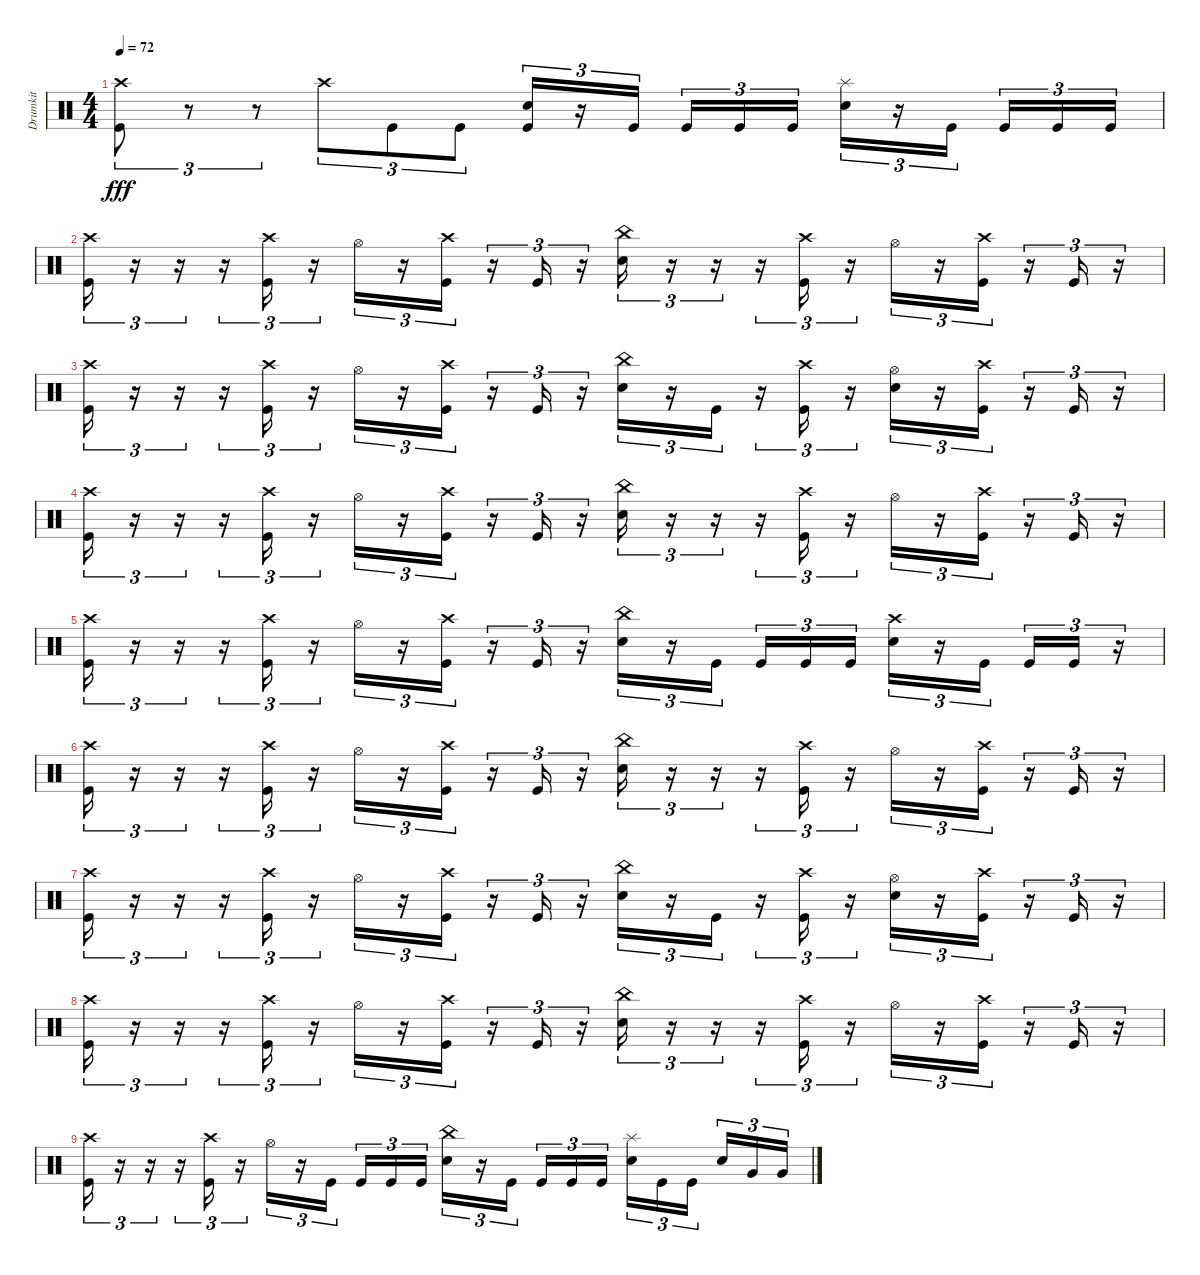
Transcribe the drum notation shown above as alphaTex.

\track ("Drumkit" "Drumkit") {instrument percussion}
\staff {score}
\articulation defaults
\ts (4 4)
\tempo 72
\clef neutral
\ks c
("Kick (hit)" "Crash high (hit)").8{tu (3 2) dy fff} r.8{tu (3 2)} r.8{tu (3 2)} "Crash high (hit)".8{tu (3 2)} "Kick (hit)".8{tu (3 2)} "Kick (hit)".8{tu (3 2)} ("Kick (hit)" "Snare (hit) 2").16{tu (3 2)} r.16{tu (3 2)} "Kick (hit)".16{tu (3 2) beam splitsecondary} "Kick (hit)".16{tu (3 2)} "Kick (hit)".16{tu (3 2)} "Kick (hit)".16{tu (3 2)} ("Snare (hit) 2" "Splash (hit)").16{tu (3 2)} r.16{tu (3 2)} "Kick (hit)".16{tu (3 2) beam splitsecondary} "Kick (hit)".16{tu (3 2)} "Kick (hit)".16{tu (3 2)} "Kick (hit)".16{tu (3 2)} |
("Kick (hit)" "Crash high (hit)").16{tu (3 2)} r.16{tu (3 2)} r.16{tu (3 2)} r.16{tu (3 2)} ("Kick (hit)" "Crash high (hit)").16{tu (3 2)} r.16{tu (3 2)} "Hi-Hat (open)".16{tu (3 2)} r.16{tu (3 2)} ("Kick (hit)" "Crash high (hit)").16{tu (3 2)} r.16{tu (3 2)} "Kick (hit)".16{tu (3 2)} r.16{tu (3 2)} ("Snare (hit) 2" "China (hit)").16{tu (3 2)} r.16{tu (3 2)} r.16{tu (3 2)} r.16{tu (3 2)} ("Kick (hit)" "Crash high (hit)").16{tu (3 2)} r.16{tu (3 2)} "Hi-Hat (open)".16{tu (3 2)} r.16{tu (3 2)} ("Kick (hit)" "Crash high (hit)").16{tu (3 2)} r.16{tu (3 2)} "Kick (hit)".16{tu (3 2)} r.16{tu (3 2)} |
("Kick (hit)" "Crash high (hit)").16{tu (3 2)} r.16{tu (3 2)} r.16{tu (3 2)} r.16{tu (3 2)} ("Kick (hit)" "Crash high (hit)").16{tu (3 2)} r.16{tu (3 2)} "Hi-Hat (open)".16{tu (3 2)} r.16{tu (3 2)} ("Kick (hit)" "Crash high (hit)").16{tu (3 2)} r.16{tu (3 2)} "Kick (hit)".16{tu (3 2)} r.16{tu (3 2)} ("Snare (hit) 2" "China (hit)").16{tu (3 2)} r.16{tu (3 2)} "Kick (hit)".16{tu (3 2)} r.16{tu (3 2)} ("Kick (hit)" "Crash high (hit)").16{tu (3 2)} r.16{tu (3 2)} ("Hi-Hat (open)" "Snare (hit) 2").16{tu (3 2)} r.16{tu (3 2)} ("Kick (hit)" "Crash high (hit)").16{tu (3 2)} r.16{tu (3 2)} "Kick (hit)".16{tu (3 2)} r.16{tu (3 2)} |
("Kick (hit)" "Crash high (hit)").16{tu (3 2)} r.16{tu (3 2)} r.16{tu (3 2)} r.16{tu (3 2)} ("Kick (hit)" "Crash high (hit)").16{tu (3 2)} r.16{tu (3 2)} "Hi-Hat (open)".16{tu (3 2)} r.16{tu (3 2)} ("Kick (hit)" "Crash high (hit)").16{tu (3 2)} r.16{tu (3 2)} "Kick (hit)".16{tu (3 2)} r.16{tu (3 2)} ("Snare (hit) 2" "China (hit)").16{tu (3 2)} r.16{tu (3 2)} r.16{tu (3 2)} r.16{tu (3 2)} ("Kick (hit)" "Crash high (hit)").16{tu (3 2)} r.16{tu (3 2)} "Hi-Hat (open)".16{tu (3 2)} r.16{tu (3 2)} ("Kick (hit)" "Crash high (hit)").16{tu (3 2)} r.16{tu (3 2)} "Kick (hit)".16{tu (3 2)} r.16{tu (3 2)} |
("Kick (hit)" "Crash high (hit)").16{tu (3 2)} r.16{tu (3 2)} r.16{tu (3 2)} r.16{tu (3 2)} ("Kick (hit)" "Crash high (hit)").16{tu (3 2)} r.16{tu (3 2)} "Hi-Hat (open)".16{tu (3 2)} r.16{tu (3 2)} ("Kick (hit)" "Crash high (hit)").16{tu (3 2)} r.16{tu (3 2)} "Kick (hit)".16{tu (3 2)} r.16{tu (3 2)} ("Snare (hit) 2" "China (hit)").16{tu (3 2)} r.16{tu (3 2)} "Kick (hit)".16{tu (3 2) beam splitsecondary} "Kick (hit)".16{tu (3 2)} "Kick (hit)".16{tu (3 2)} "Kick (hit)".16{tu (3 2)} ("Crash high (hit)" "Snare (hit) 2").16{tu (3 2)} r.16{tu (3 2)} "Kick (hit)".16{tu (3 2) beam splitsecondary} "Kick (hit)".16{tu (3 2)} "Kick (hit)".16{tu (3 2)} r.16{tu (3 2)} |
("Kick (hit)" "Crash high (hit)").16{tu (3 2)} r.16{tu (3 2)} r.16{tu (3 2)} r.16{tu (3 2)} ("Kick (hit)" "Crash high (hit)").16{tu (3 2)} r.16{tu (3 2)} "Hi-Hat (open)".16{tu (3 2)} r.16{tu (3 2)} ("Kick (hit)" "Crash high (hit)").16{tu (3 2)} r.16{tu (3 2)} "Kick (hit)".16{tu (3 2)} r.16{tu (3 2)} ("Snare (hit) 2" "China (hit)").16{tu (3 2)} r.16{tu (3 2)} r.16{tu (3 2)} r.16{tu (3 2)} ("Kick (hit)" "Crash high (hit)").16{tu (3 2)} r.16{tu (3 2)} "Hi-Hat (open)".16{tu (3 2)} r.16{tu (3 2)} ("Kick (hit)" "Crash high (hit)").16{tu (3 2)} r.16{tu (3 2)} "Kick (hit)".16{tu (3 2)} r.16{tu (3 2)} |
("Kick (hit)" "Crash high (hit)").16{tu (3 2)} r.16{tu (3 2)} r.16{tu (3 2)} r.16{tu (3 2)} ("Kick (hit)" "Crash high (hit)").16{tu (3 2)} r.16{tu (3 2)} "Hi-Hat (open)".16{tu (3 2)} r.16{tu (3 2)} ("Kick (hit)" "Crash high (hit)").16{tu (3 2)} r.16{tu (3 2)} "Kick (hit)".16{tu (3 2)} r.16{tu (3 2)} ("Snare (hit) 2" "China (hit)").16{tu (3 2)} r.16{tu (3 2)} "Kick (hit)".16{tu (3 2)} r.16{tu (3 2)} ("Kick (hit)" "Crash high (hit)").16{tu (3 2)} r.16{tu (3 2)} ("Hi-Hat (open)" "Snare (hit) 2").16{tu (3 2)} r.16{tu (3 2)} ("Kick (hit)" "Crash high (hit)").16{tu (3 2)} r.16{tu (3 2)} "Kick (hit)".16{tu (3 2)} r.16{tu (3 2)} |
("Kick (hit)" "Crash high (hit)").16{tu (3 2)} r.16{tu (3 2)} r.16{tu (3 2)} r.16{tu (3 2)} ("Kick (hit)" "Crash high (hit)").16{tu (3 2)} r.16{tu (3 2)} "Hi-Hat (open)".16{tu (3 2)} r.16{tu (3 2)} ("Kick (hit)" "Crash high (hit)").16{tu (3 2)} r.16{tu (3 2)} "Kick (hit)".16{tu (3 2)} r.16{tu (3 2)} ("Snare (hit) 2" "China (hit)").16{tu (3 2)} r.16{tu (3 2)} r.16{tu (3 2)} r.16{tu (3 2)} ("Kick (hit)" "Crash high (hit)").16{tu (3 2)} r.16{tu (3 2)} "Hi-Hat (open)".16{tu (3 2)} r.16{tu (3 2)} ("Kick (hit)" "Crash high (hit)").16{tu (3 2)} r.16{tu (3 2)} "Kick (hit)".16{tu (3 2)} r.16{tu (3 2)} |
("Kick (hit)" "Crash high (hit)").16{tu (3 2)} r.16{tu (3 2)} r.16{tu (3 2)} r.16{tu (3 2)} ("Kick (hit)" "Crash high (hit)").16{tu (3 2)} r.16{tu (3 2)} "Hi-Hat (open)".16{tu (3 2)} r.16{tu (3 2)} "Kick (hit)".16{tu (3 2) beam splitsecondary} "Kick (hit)".16{tu (3 2)} "Kick (hit)".16{tu (3 2)} "Kick (hit)".16{tu (3 2)} ("Snare (hit) 2" "China (hit)").16{tu (3 2)} r.16{tu (3 2)} "Kick (hit)".16{tu (3 2) beam splitsecondary} "Kick (hit)".16{tu (3 2)} "Kick (hit)".16{tu (3 2)} "Kick (hit)".16{tu (3 2)} ("Snare (hit) 2" "Splash (hit)").16{tu (3 2)} "Kick (hit)".16{tu (3 2)} "Kick (hit)".16{tu (3 2) beam splitsecondary} "Snare (hit) 2".16{tu (3 2)} "Very Low Tom (hit)".16{tu (3 2)} "Very Low Tom (hit)".16{tu (3 2)}
